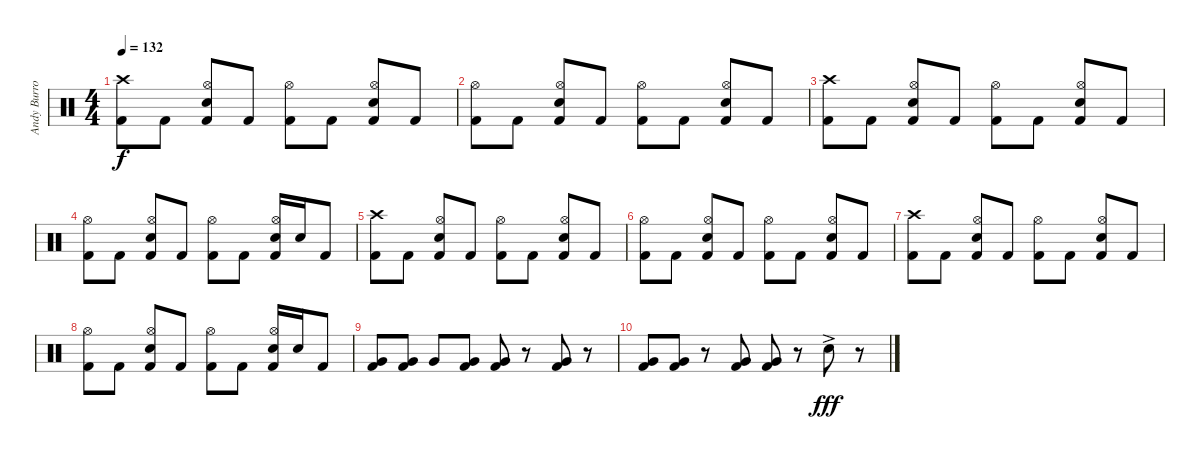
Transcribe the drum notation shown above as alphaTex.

\track ("Andy Burrows" "Andy Burro") {instrument percussion}
\staff {score}
\articulation defaults
\ts (4 4)
\tempo 132
\clef neutral
\ks c
("Crash high (hit)" "Kick (hit) 2").8{dy f} "Kick (hit) 2".8 ("Hi-Hat (open)" "Snare (hit) 2" "Kick (hit) 2").8 "Kick (hit) 2".8 ("Hi-Hat (open)" "Kick (hit) 2").8 "Kick (hit) 2".8 ("Hi-Hat (open)" "Snare (hit) 2" "Kick (hit) 2").8 "Kick (hit) 2".8 |
("Hi-Hat (open)" "Kick (hit) 2").8 "Kick (hit) 2".8 ("Hi-Hat (open)" "Snare (hit) 2" "Kick (hit) 2").8 "Kick (hit) 2".8 ("Hi-Hat (open)" "Kick (hit) 2").8 "Kick (hit) 2".8 ("Hi-Hat (open)" "Snare (hit) 2" "Kick (hit) 2").8 "Kick (hit) 2".8 |
("Crash high (hit)" "Kick (hit) 2").8 "Kick (hit) 2".8 ("Hi-Hat (open)" "Snare (hit) 2" "Kick (hit) 2").8 "Kick (hit) 2".8 ("Hi-Hat (open)" "Kick (hit) 2").8 "Kick (hit) 2".8 ("Hi-Hat (open)" "Snare (hit) 2" "Kick (hit) 2").8 "Kick (hit) 2".8 |
("Hi-Hat (open)" "Kick (hit) 2").8 "Kick (hit) 2".8 ("Hi-Hat (open)" "Snare (hit) 2" "Kick (hit) 2").8 "Kick (hit) 2".8 ("Hi-Hat (open)" "Kick (hit) 2").8 "Kick (hit) 2".8 ("Hi-Hat (open)" "Snare (hit) 2" "Kick (hit) 2").16 "Snare (hit) 2".16 "Kick (hit) 2".8 |
("Crash high (hit)" "Kick (hit) 2").8 "Kick (hit) 2".8 ("Hi-Hat (open)" "Snare (hit) 2" "Kick (hit) 2").8 "Kick (hit) 2".8 ("Hi-Hat (open)" "Kick (hit) 2").8 "Kick (hit) 2".8 ("Hi-Hat (open)" "Snare (hit) 2" "Kick (hit) 2").8 "Kick (hit) 2".8 |
("Hi-Hat (open)" "Kick (hit) 2").8 "Kick (hit) 2".8 ("Hi-Hat (open)" "Snare (hit) 2" "Kick (hit) 2").8 "Kick (hit) 2".8 ("Hi-Hat (open)" "Kick (hit) 2").8 "Kick (hit) 2".8 ("Hi-Hat (open)" "Snare (hit) 2" "Kick (hit) 2").8 "Kick (hit) 2".8 |
("Crash high (hit)" "Kick (hit) 2").8 "Kick (hit) 2".8 ("Hi-Hat (open)" "Snare (hit) 2" "Kick (hit) 2").8 "Kick (hit) 2".8 ("Hi-Hat (open)" "Kick (hit) 2").8 "Kick (hit) 2".8 ("Hi-Hat (open)" "Snare (hit) 2" "Kick (hit) 2").8 "Kick (hit) 2".8 |
("Hi-Hat (open)" "Kick (hit) 2").8 "Kick (hit) 2".8 ("Hi-Hat (open)" "Snare (hit) 2" "Kick (hit) 2").8 "Kick (hit) 2".8 ("Hi-Hat (open)" "Kick (hit) 2").8 "Kick (hit) 2".8 ("Hi-Hat (open)" "Snare (hit) 2" "Kick (hit) 2").16 "Snare (hit) 2".16 "Kick (hit) 2".8 |
("Very Low Tom (hit)" "Kick (hit) 2").8 ("Very Low Tom (hit)" "Kick (hit) 2").8 "Very Low Tom (hit)".8 ("Very Low Tom (hit)" "Kick (hit) 2").8 ("Very Low Tom (hit)" "Kick (hit) 2").8 r.8 ("Very Low Tom (hit)" "Kick (hit) 2").8 r.8 |
("Very Low Tom (hit)" "Kick (hit) 2").8 ("Very Low Tom (hit)" "Kick (hit) 2").8 r.8 ("Very Low Tom (hit)" "Kick (hit) 2").8 ("Very Low Tom (hit)" "Kick (hit) 2").8 r.8 "Snare (hit) 2"{ac}.8{dy fff} r.8
